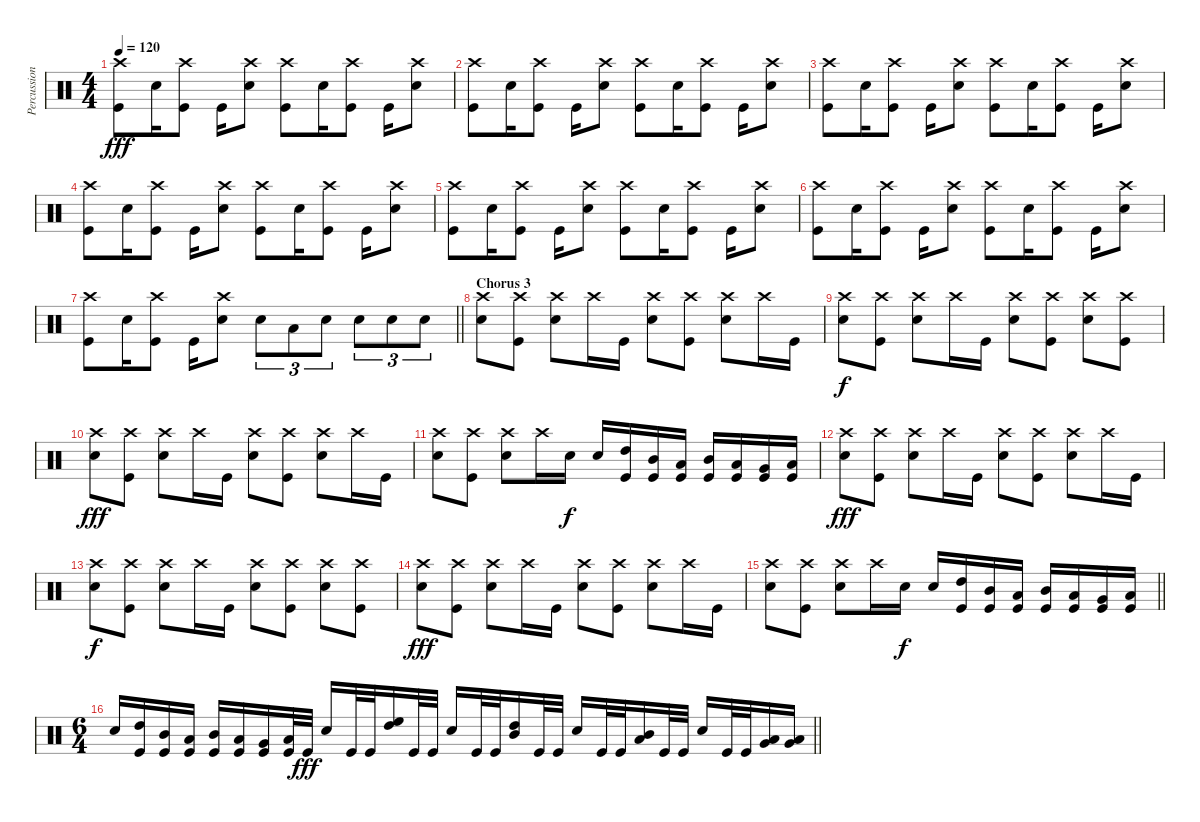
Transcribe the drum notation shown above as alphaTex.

\track ("Percussion" "Percussion") {instrument percussion}
\staff {score}
\articulation defaults
\ts (4 4)
\tempo 120
\clef neutral
\ks c
("Crash high (hit)" "Kick (hit)").8{dy fff} "Snare (hit) 2".16 ("Crash high (hit)" "Kick (hit)").8 "Kick (hit)".16 ("Crash high (hit)" "Snare (hit) 2").8 ("Crash high (hit)" "Kick (hit)").8 "Snare (hit) 2".16 ("Crash high (hit)" "Kick (hit)").8 "Kick (hit)".16 ("Crash high (hit)" "Snare (hit) 2").8 |
("Crash high (hit)" "Kick (hit)").8 "Snare (hit) 2".16 ("Crash high (hit)" "Kick (hit)").8 "Kick (hit)".16 ("Crash high (hit)" "Snare (hit) 2").8 ("Crash high (hit)" "Kick (hit)").8 "Snare (hit) 2".16 ("Crash high (hit)" "Kick (hit)").8 "Kick (hit)".16 ("Crash high (hit)" "Snare (hit) 2").8 |
("Crash high (hit)" "Kick (hit)").8 "Snare (hit) 2".16 ("Crash high (hit)" "Kick (hit)").8 "Kick (hit)".16 ("Crash high (hit)" "Snare (hit) 2").8 ("Crash high (hit)" "Kick (hit)").8 "Snare (hit) 2".16 ("Crash high (hit)" "Kick (hit)").8 "Kick (hit)".16 ("Crash high (hit)" "Snare (hit) 2").8 |
("Crash high (hit)" "Kick (hit)").8 "Snare (hit) 2".16 ("Crash high (hit)" "Kick (hit)").8 "Kick (hit)".16 ("Crash high (hit)" "Snare (hit) 2").8 ("Crash high (hit)" "Kick (hit)").8 "Snare (hit) 2".16 ("Crash high (hit)" "Kick (hit)").8 "Kick (hit)".16 ("Crash high (hit)" "Snare (hit) 2").8 |
("Crash high (hit)" "Kick (hit)").8 "Snare (hit) 2".16 ("Crash high (hit)" "Kick (hit)").8 "Kick (hit)".16 ("Crash high (hit)" "Snare (hit) 2").8 ("Crash high (hit)" "Kick (hit)").8 "Snare (hit) 2".16 ("Crash high (hit)" "Kick (hit)").8 "Kick (hit)".16 ("Crash high (hit)" "Snare (hit) 2").8 |
("Crash high (hit)" "Kick (hit)").8 "Snare (hit) 2".16 ("Crash high (hit)" "Kick (hit)").8 "Kick (hit)".16 ("Crash high (hit)" "Snare (hit) 2").8 ("Crash high (hit)" "Kick (hit)").8 "Snare (hit) 2".16 ("Crash high (hit)" "Kick (hit)").8 "Kick (hit)".16 ("Crash high (hit)" "Snare (hit) 2").8 |
\barLineRight lightlight
("Crash high (hit)" "Kick (hit)").8 "Snare (hit) 2".16 ("Crash high (hit)" "Kick (hit)").8 "Kick (hit)".16 ("Crash high (hit)" "Snare (hit) 2").8 "Snare (hit) 2".8{tu (3 2)} "Low Tom (hit)".8{tu (3 2)} "Snare (hit) 2".8{tu (3 2)} "Snare (hit) 2".8{tu (3 2)} "Snare (hit) 2".8{tu (3 2)} "Snare (hit) 2".8{tu (3 2)} |
\section ("" "Chorus 3")
("Crash high (hit)" "Snare (hit) 2").8 ("Crash high (hit)" "Kick (hit)").8 ("Crash high (hit)" "Snare (hit) 2").8 "Crash high (hit)".16 "Kick (hit)".16 ("Crash high (hit)" "Snare (hit) 2").8 ("Crash high (hit)" "Kick (hit)").8 ("Crash high (hit)" "Snare (hit) 2").8 "Crash high (hit)".16 "Kick (hit)".16 |
("Crash high (hit)" "Snare (hit) 2").8{dy f} ("Crash high (hit)" "Kick (hit)").8 ("Crash high (hit)" "Snare (hit) 2").8 "Crash high (hit)".16 "Kick (hit)".16 ("Crash high (hit)" "Snare (hit) 2").8 ("Crash high (hit)" "Kick (hit)").8 ("Crash high (hit)" "Snare (hit) 2").8 ("Crash high (hit)" "Kick (hit)").8 |
("Crash high (hit)" "Snare (hit) 2").8{dy fff} ("Crash high (hit)" "Kick (hit)").8 ("Crash high (hit)" "Snare (hit) 2").8 "Crash high (hit)".16 "Kick (hit)".16 ("Crash high (hit)" "Snare (hit) 2").8 ("Crash high (hit)" "Kick (hit)").8 ("Crash high (hit)" "Snare (hit) 2").8 "Crash high (hit)".16 "Kick (hit)".16 |
("Crash high (hit)" "Snare (hit) 2").8 ("Crash high (hit)" "Kick (hit)").8 ("Crash high (hit)" "Snare (hit) 2").8 "Crash high (hit)".16 "Snare (hit) 2".16{dy f} "Snare (hit) 2".16 ("High Tom (hit)" "Kick (hit)").16 ("Mid Tom (hit)" "Kick (hit)").16 ("Low Tom (hit)" "Kick (hit)").16 ("Mid Tom (hit)" "Kick (hit)").16 ("Low Tom (hit)" "Kick (hit)").16 ("Very Low Tom (hit)" "Kick (hit)").16 ("Low Floor Tom (hit)" "Kick (hit)").16 |
("Crash high (hit)" "Snare (hit) 2").8{dy fff} ("Crash high (hit)" "Kick (hit)").8 ("Crash high (hit)" "Snare (hit) 2").8 "Crash high (hit)".16 "Kick (hit)".16 ("Crash high (hit)" "Snare (hit) 2").8 ("Crash high (hit)" "Kick (hit)").8 ("Crash high (hit)" "Snare (hit) 2").8 "Crash high (hit)".16 "Kick (hit)".16 |
("Crash high (hit)" "Snare (hit) 2").8{dy f} ("Crash high (hit)" "Kick (hit)").8 ("Crash high (hit)" "Snare (hit) 2").8 "Crash high (hit)".16 "Kick (hit)".16 ("Crash high (hit)" "Snare (hit) 2").8 ("Crash high (hit)" "Kick (hit)").8 ("Crash high (hit)" "Snare (hit) 2").8 ("Crash high (hit)" "Kick (hit)").8 |
("Crash high (hit)" "Snare (hit) 2").8{dy fff} ("Crash high (hit)" "Kick (hit)").8 ("Crash high (hit)" "Snare (hit) 2").8 "Crash high (hit)".16 "Kick (hit)".16 ("Crash high (hit)" "Snare (hit) 2").8 ("Crash high (hit)" "Kick (hit)").8 ("Crash high (hit)" "Snare (hit) 2").8 "Crash high (hit)".16 "Kick (hit)".16 |
\barLineRight lightlight
("Crash high (hit)" "Snare (hit) 2").8 ("Crash high (hit)" "Kick (hit)").8 ("Crash high (hit)" "Snare (hit) 2").8 "Crash high (hit)".16 "Snare (hit) 2".16{dy f} "Snare (hit) 2".16 ("High Tom (hit)" "Kick (hit)").16 ("Mid Tom (hit)" "Kick (hit)").16 ("Low Tom (hit)" "Kick (hit)").16 ("Mid Tom (hit)" "Kick (hit)").16 ("Low Tom (hit)" "Kick (hit)").16 ("Very Low Tom (hit)" "Kick (hit)").16 ("Low Floor Tom (hit)" "Kick (hit)").16 |
\ts (6 4)
\barLineRight lightlight "Snare (hit) 2".16
("High Tom (hit)" "Kick (hit)").16 ("Mid Tom (hit)" "Kick (hit)").16 ("Low Tom (hit)" "Kick (hit)").16 ("Mid Tom (hit)" "Kick (hit)").16 ("Low Tom (hit)" "Kick (hit)").16 ("Very Low Tom (hit)" "Kick (hit)").16 ("Low Floor Tom (hit)" "Kick (hit)").32 "Kick (hit)".32{dy fff} "Snare (hit) 2".16 "Kick (hit)".32 "Kick (hit)".32 ("High Floor Tom (hit)" "High Tom (hit)").16 "Kick (hit)".32 "Kick (hit)".32 "Snare (hit) 2".16 "Kick (hit)".32 "Kick (hit)".32 ("High Tom (hit)" "Mid Tom (hit)").16 "Kick (hit)".32 "Kick (hit)".32 "Snare (hit) 2".16 "Kick (hit)".32 "Kick (hit)".32 ("Mid Tom (hit)" "Low Tom (hit)").16 "Kick (hit)".32 "Kick (hit)".32 "Snare (hit) 2".16 "Kick (hit)".32 "Kick (hit)".32 ("Low Tom (hit)" "Very Low Tom (hit)").16 ("Very Low Tom (hit)" "Low Floor Tom (hit)").16
